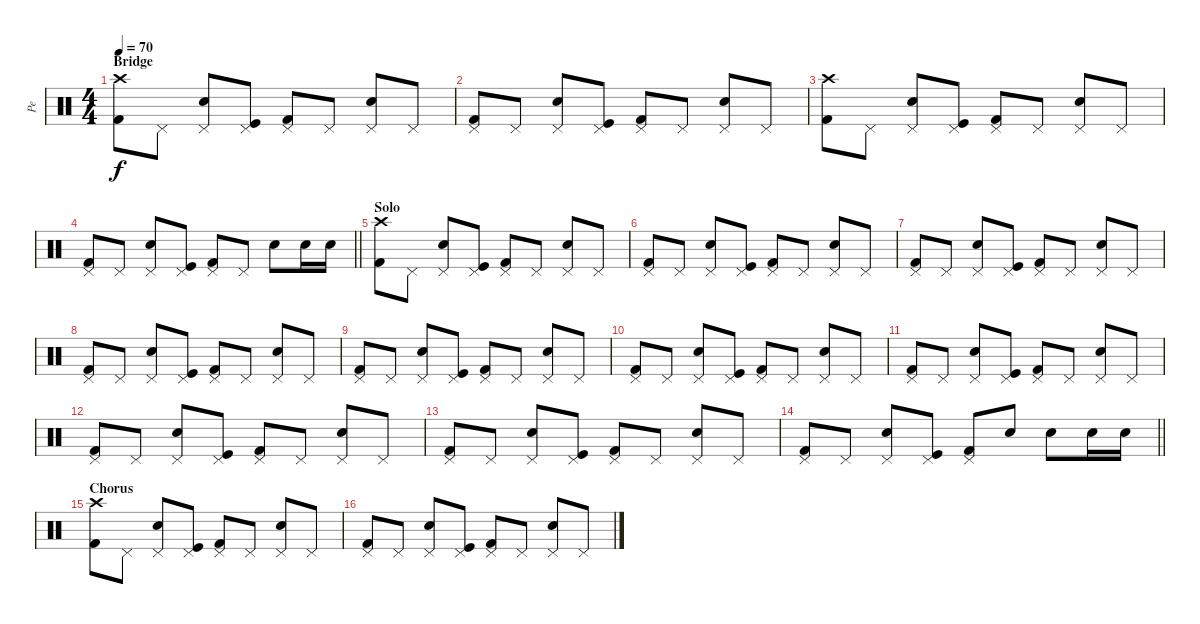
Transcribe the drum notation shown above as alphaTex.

\track ("Pe" "Pe") {instrument percussion}
\staff {score}
\articulation defaults
\ts (4 4)
\section ("" "Bridge")
\tempo 70
\clef neutral
\ks c
("Kick (hit) 2" "Crash high (hit)").8{dy f} "Pedal Hi-Hat (hit)".8 ("Electric Snare (hit)" "Pedal Hi-Hat (hit)").8 ("Kick (hit)" "Pedal Hi-Hat (hit)").8 ("Kick (hit) 2" "Pedal Hi-Hat (hit)").8 "Pedal Hi-Hat (hit)".8 ("Electric Snare (hit)" "Pedal Hi-Hat (hit)").8 "Pedal Hi-Hat (hit)".8 |
("Kick (hit) 2" "Pedal Hi-Hat (hit)").8 "Pedal Hi-Hat (hit)".8 ("Electric Snare (hit)" "Pedal Hi-Hat (hit)").8 ("Kick (hit)" "Pedal Hi-Hat (hit)").8 ("Kick (hit) 2" "Pedal Hi-Hat (hit)").8 "Pedal Hi-Hat (hit)".8 ("Electric Snare (hit)" "Pedal Hi-Hat (hit)").8 "Pedal Hi-Hat (hit)".8 |
("Kick (hit) 2" "Crash high (hit)").8 "Pedal Hi-Hat (hit)".8 ("Electric Snare (hit)" "Pedal Hi-Hat (hit)").8 ("Kick (hit)" "Pedal Hi-Hat (hit)").8 ("Kick (hit) 2" "Pedal Hi-Hat (hit)").8 "Pedal Hi-Hat (hit)".8 ("Electric Snare (hit)" "Pedal Hi-Hat (hit)").8 "Pedal Hi-Hat (hit)".8 |
\barLineRight lightlight
("Kick (hit) 2" "Pedal Hi-Hat (hit)").8 "Pedal Hi-Hat (hit)".8 ("Electric Snare (hit)" "Pedal Hi-Hat (hit)").8 ("Kick (hit)" "Pedal Hi-Hat (hit)").8 ("Kick (hit) 2" "Pedal Hi-Hat (hit)").8 "Pedal Hi-Hat (hit)".8 "Electric Snare (hit)".8 "Electric Snare (hit)".16 "Electric Snare (hit)".16 |
\section ("" "Solo")
("Kick (hit) 2" "Crash high (hit)").8 "Pedal Hi-Hat (hit)".8 ("Electric Snare (hit)" "Pedal Hi-Hat (hit)").8 ("Kick (hit)" "Pedal Hi-Hat (hit)").8 ("Kick (hit) 2" "Pedal Hi-Hat (hit)").8 "Pedal Hi-Hat (hit)".8 ("Electric Snare (hit)" "Pedal Hi-Hat (hit)").8 "Pedal Hi-Hat (hit)".8 |
("Kick (hit) 2" "Pedal Hi-Hat (hit)").8 "Pedal Hi-Hat (hit)".8 ("Electric Snare (hit)" "Pedal Hi-Hat (hit)").8 ("Kick (hit)" "Pedal Hi-Hat (hit)").8 ("Kick (hit) 2" "Pedal Hi-Hat (hit)").8 "Pedal Hi-Hat (hit)".8 ("Electric Snare (hit)" "Pedal Hi-Hat (hit)").8 "Pedal Hi-Hat (hit)".8 |
("Kick (hit) 2" "Pedal Hi-Hat (hit)").8 "Pedal Hi-Hat (hit)".8 ("Electric Snare (hit)" "Pedal Hi-Hat (hit)").8 ("Kick (hit)" "Pedal Hi-Hat (hit)").8 ("Kick (hit) 2" "Pedal Hi-Hat (hit)").8 "Pedal Hi-Hat (hit)".8 ("Electric Snare (hit)" "Pedal Hi-Hat (hit)").8 "Pedal Hi-Hat (hit)".8 |
("Kick (hit) 2" "Pedal Hi-Hat (hit)").8 "Pedal Hi-Hat (hit)".8 ("Electric Snare (hit)" "Pedal Hi-Hat (hit)").8 ("Kick (hit)" "Pedal Hi-Hat (hit)").8 ("Kick (hit) 2" "Pedal Hi-Hat (hit)").8 "Pedal Hi-Hat (hit)".8 ("Electric Snare (hit)" "Pedal Hi-Hat (hit)").8 "Pedal Hi-Hat (hit)".8 |
("Kick (hit) 2" "Pedal Hi-Hat (hit)").8 "Pedal Hi-Hat (hit)".8 ("Electric Snare (hit)" "Pedal Hi-Hat (hit)").8 ("Kick (hit)" "Pedal Hi-Hat (hit)").8 ("Kick (hit) 2" "Pedal Hi-Hat (hit)").8 "Pedal Hi-Hat (hit)".8 ("Electric Snare (hit)" "Pedal Hi-Hat (hit)").8 "Pedal Hi-Hat (hit)".8 |
("Kick (hit) 2" "Pedal Hi-Hat (hit)").8 "Pedal Hi-Hat (hit)".8 ("Electric Snare (hit)" "Pedal Hi-Hat (hit)").8 ("Kick (hit)" "Pedal Hi-Hat (hit)").8 ("Kick (hit) 2" "Pedal Hi-Hat (hit)").8 "Pedal Hi-Hat (hit)".8 ("Electric Snare (hit)" "Pedal Hi-Hat (hit)").8 "Pedal Hi-Hat (hit)".8 |
("Kick (hit) 2" "Pedal Hi-Hat (hit)").8 "Pedal Hi-Hat (hit)".8 ("Electric Snare (hit)" "Pedal Hi-Hat (hit)").8 ("Kick (hit)" "Pedal Hi-Hat (hit)").8 ("Kick (hit) 2" "Pedal Hi-Hat (hit)").8 "Pedal Hi-Hat (hit)".8 ("Electric Snare (hit)" "Pedal Hi-Hat (hit)").8 "Pedal Hi-Hat (hit)".8 |
("Kick (hit) 2" "Pedal Hi-Hat (hit)").8 "Pedal Hi-Hat (hit)".8 ("Electric Snare (hit)" "Pedal Hi-Hat (hit)").8 ("Kick (hit)" "Pedal Hi-Hat (hit)").8 ("Kick (hit) 2" "Pedal Hi-Hat (hit)").8 "Pedal Hi-Hat (hit)".8 ("Electric Snare (hit)" "Pedal Hi-Hat (hit)").8 "Pedal Hi-Hat (hit)".8 |
("Kick (hit) 2" "Pedal Hi-Hat (hit)").8 "Pedal Hi-Hat (hit)".8 ("Electric Snare (hit)" "Pedal Hi-Hat (hit)").8 ("Kick (hit)" "Pedal Hi-Hat (hit)").8 ("Kick (hit) 2" "Pedal Hi-Hat (hit)").8 "Pedal Hi-Hat (hit)".8 ("Electric Snare (hit)" "Pedal Hi-Hat (hit)").8 "Pedal Hi-Hat (hit)".8 |
\barLineRight lightlight
("Kick (hit) 2" "Pedal Hi-Hat (hit)").8 "Pedal Hi-Hat (hit)".8 ("Electric Snare (hit)" "Pedal Hi-Hat (hit)").8 ("Kick (hit)" "Pedal Hi-Hat (hit)").8 ("Kick (hit) 2" "Pedal Hi-Hat (hit)").8 "Electric Snare (hit)".8 "Electric Snare (hit)".8 "Electric Snare (hit)".16 "Electric Snare (hit)".16 |
\section ("" "Chorus")
("Kick (hit) 2" "Crash high (hit)").8 "Pedal Hi-Hat (hit)".8 ("Electric Snare (hit)" "Pedal Hi-Hat (hit)").8 ("Kick (hit)" "Pedal Hi-Hat (hit)").8 ("Kick (hit) 2" "Pedal Hi-Hat (hit)").8 "Pedal Hi-Hat (hit)".8 ("Electric Snare (hit)" "Pedal Hi-Hat (hit)").8 "Pedal Hi-Hat (hit)".8 |
("Kick (hit) 2" "Pedal Hi-Hat (hit)").8 "Pedal Hi-Hat (hit)".8 ("Electric Snare (hit)" "Pedal Hi-Hat (hit)").8 ("Kick (hit)" "Pedal Hi-Hat (hit)").8 ("Kick (hit) 2" "Pedal Hi-Hat (hit)").8 "Pedal Hi-Hat (hit)".8 ("Electric Snare (hit)" "Pedal Hi-Hat (hit)").8 "Pedal Hi-Hat (hit)".8
